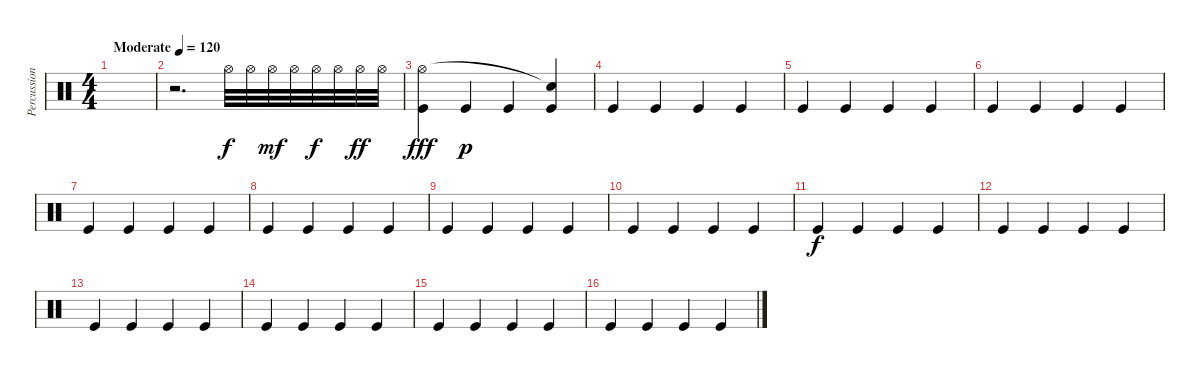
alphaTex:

\track ("Percussion" "Percussion") {instrument percussion}
\staff {score}
\articulation defaults
\ts (4 4)
\tempo (120 "Moderate")
\clef neutral
\ks c
|
r.2{d} "Hi-Hat (open)".32 "Hi-Hat (open)".32 "Hi-Hat (open)".32{dy mf} "Hi-Hat (open)".32 "Hi-Hat (open)".32{dy f} "Hi-Hat (open)".32 "Hi-Hat (open)".32{dy ff} "Hi-Hat (open)".32 |
("Kick (hit)" "Hi-Hat (open)").4{dy fff} "Kick (hit)".4{dy p} "Kick (hit)".4 ("Kick (hit)" "Snare (hit)"{t}).4 |
"Kick (hit)".4 "Kick (hit)".4 "Kick (hit)".4 "Kick (hit)".4 |
"Kick (hit)".4 "Kick (hit)".4 "Kick (hit)".4 "Kick (hit)".4 |
"Kick (hit)".4 "Kick (hit)".4 "Kick (hit)".4 "Kick (hit)".4 |
"Kick (hit)".4 "Kick (hit)".4 "Kick (hit)".4 "Kick (hit)".4 |
"Kick (hit)".4 "Kick (hit)".4 "Kick (hit)".4 "Kick (hit)".4 |
"Kick (hit)".4 "Kick (hit)".4 "Kick (hit)".4 "Kick (hit)".4 |
"Kick (hit)".4 "Kick (hit)".4 "Kick (hit)".4 "Kick (hit)".4 |
"Kick (hit)".4{dy f} "Kick (hit)".4 "Kick (hit)".4 "Kick (hit)".4 |
"Kick (hit)".4 "Kick (hit)".4 "Kick (hit)".4 "Kick (hit)".4 |
"Kick (hit)".4 "Kick (hit)".4 "Kick (hit)".4 "Kick (hit)".4 |
"Kick (hit)".4 "Kick (hit)".4 "Kick (hit)".4 "Kick (hit)".4 |
"Kick (hit)".4 "Kick (hit)".4 "Kick (hit)".4 "Kick (hit)".4 |
"Kick (hit)".4 "Kick (hit)".4 "Kick (hit)".4 "Kick (hit)".4
